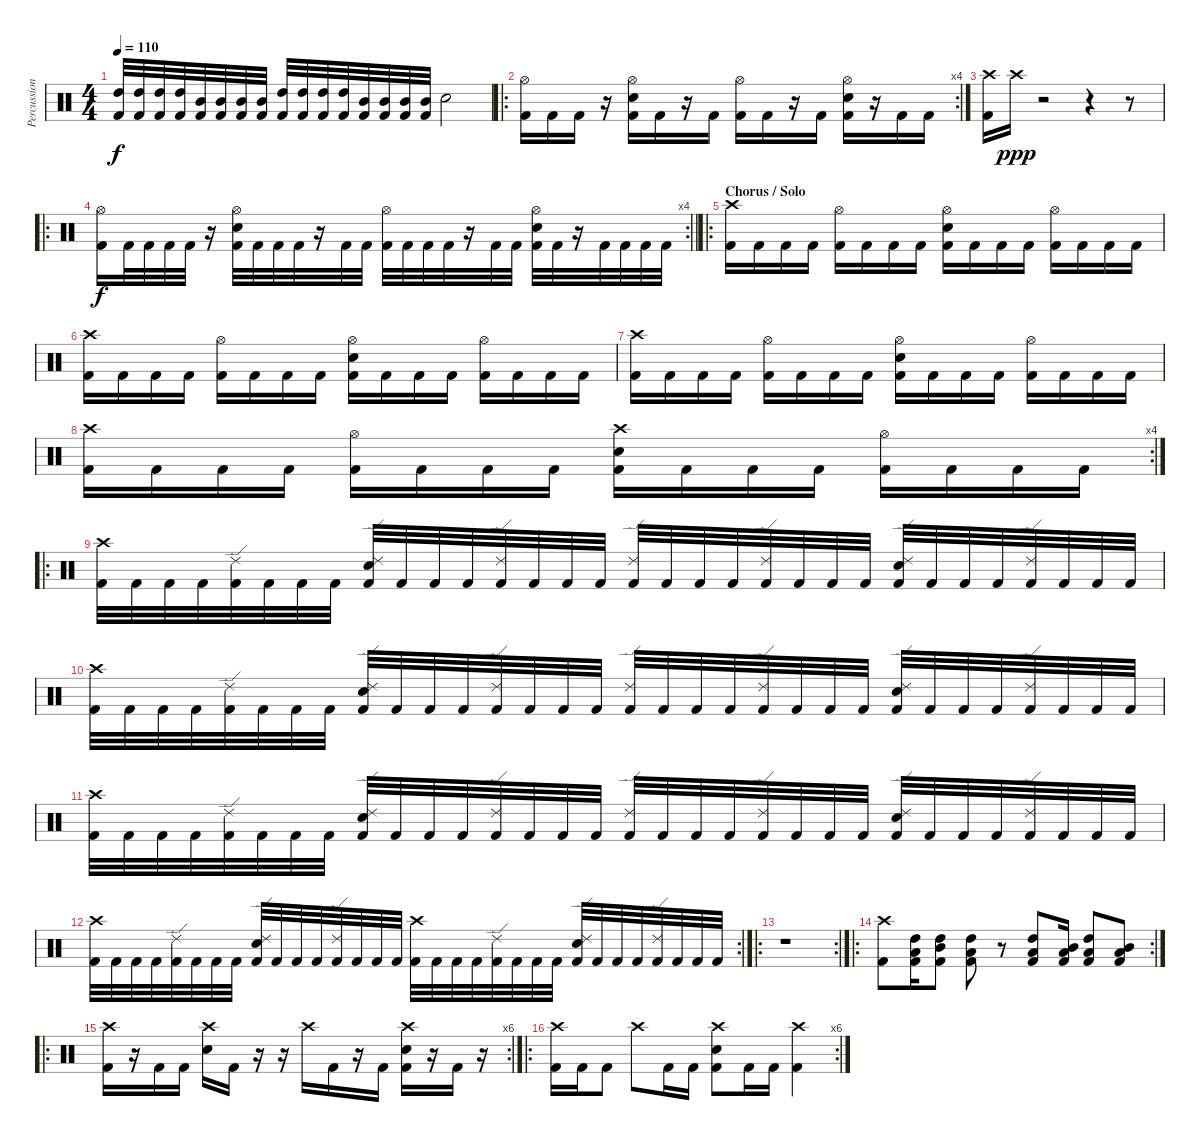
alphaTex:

\track ("Percussion" "Percussion") {instrument percussion}
\staff {score}
\articulation defaults
\ts (4 4)
\tempo 110
\clef neutral
\ks c
("High Tom (hit)" "Kick (hit) 2").32{dy f} ("High Tom (hit)" "Kick (hit) 2").32 ("High Tom (hit)" "Kick (hit) 2").32 ("High Tom (hit)" "Kick (hit) 2").32 ("Mid Tom (hit)" "Kick (hit) 2").32 ("Mid Tom (hit)" "Kick (hit) 2").32 ("Mid Tom (hit)" "Kick (hit) 2").32 ("Mid Tom (hit)" "Kick (hit) 2").32 ("High Tom (hit)" "Kick (hit) 2").32 ("High Tom (hit)" "Kick (hit) 2").32 ("High Tom (hit)" "Kick (hit) 2").32 ("High Tom (hit)" "Kick (hit) 2").32 ("Mid Tom (hit)" "Kick (hit) 2").32 ("Mid Tom (hit)" "Kick (hit) 2").32 ("Mid Tom (hit)" "Kick (hit) 2").32 ("Mid Tom (hit)" "Kick (hit) 2").32 "Electric Snare (hit)".2 |
\ro
\rc 4
("Hi-Hat (open)" "Kick (hit) 2").16 "Kick (hit) 2".16 "Kick (hit) 2".16 r.16 ("Hi-Hat (open)" "Electric Snare (hit)" "Kick (hit) 2").16 "Kick (hit) 2".16 r.16 "Kick (hit) 2".16 ("Hi-Hat (open)" "Kick (hit) 2").16 "Kick (hit) 2".16 r.16 "Kick (hit) 2".16 ("Hi-Hat (open)" "Electric Snare (hit)" "Kick (hit) 2").16 r.16 "Kick (hit) 2".16 "Kick (hit) 2".16 |
("Crash high (hit)" "Kick (hit) 2").16 "Crash high (hit)".16{dy ppp} r.2 r.4 r.8 |
\ro
\rc 4
\barLineRight lightlight
("Hi-Hat (open)" "Kick (hit) 2").16{dy f} "Kick (hit) 2".32 "Kick (hit) 2".32 "Kick (hit) 2".32 "Kick (hit) 2".32 r.16 ("Hi-Hat (open)" "Electric Snare (hit)" "Kick (hit) 2").32 "Kick (hit) 2".32 "Kick (hit) 2".32 "Kick (hit) 2".32 r.16 "Kick (hit) 2".32 "Kick (hit) 2".32 ("Hi-Hat (open)" "Kick (hit) 2").32 "Kick (hit) 2".32 "Kick (hit) 2".32 "Kick (hit) 2".32 r.16 "Kick (hit) 2".32 "Kick (hit) 2".32 ("Hi-Hat (open)" "Electric Snare (hit)" "Kick (hit) 2").32 "Kick (hit) 2".32 r.16 "Kick (hit) 2".32 "Kick (hit) 2".32 "Kick (hit) 2".32 "Kick (hit) 2".32 |
\ro
\section ("" "Chorus / Solo")
("Crash high (hit)" "Kick (hit) 2").16 "Kick (hit) 2".16 "Kick (hit) 2".16 "Kick (hit) 2".16 ("Hi-Hat (open)" "Kick (hit) 2").16 "Kick (hit) 2".16 "Kick (hit) 2".16 "Kick (hit) 2".16 ("Hi-Hat (open)" "Electric Snare (hit)" "Kick (hit) 2").16 "Kick (hit) 2".16 "Kick (hit) 2".16 "Kick (hit) 2".16 ("Hi-Hat (open)" "Kick (hit) 2").16 "Kick (hit) 2".16 "Kick (hit) 2".16 "Kick (hit) 2".16 |
("Crash high (hit)" "Kick (hit) 2").16 "Kick (hit) 2".16 "Kick (hit) 2".16 "Kick (hit) 2".16 ("Hi-Hat (open)" "Kick (hit) 2").16 "Kick (hit) 2".16 "Kick (hit) 2".16 "Kick (hit) 2".16 ("Hi-Hat (open)" "Electric Snare (hit)" "Kick (hit) 2").16 "Kick (hit) 2".16 "Kick (hit) 2".16 "Kick (hit) 2".16 ("Hi-Hat (open)" "Kick (hit) 2").16 "Kick (hit) 2".16 "Kick (hit) 2".16 "Kick (hit) 2".16 |
("Crash high (hit)" "Kick (hit) 2").16 "Kick (hit) 2".16 "Kick (hit) 2".16 "Kick (hit) 2".16 ("Hi-Hat (open)" "Kick (hit) 2").16 "Kick (hit) 2".16 "Kick (hit) 2".16 "Kick (hit) 2".16 ("Hi-Hat (open)" "Electric Snare (hit)" "Kick (hit) 2").16 "Kick (hit) 2".16 "Kick (hit) 2".16 "Kick (hit) 2".16 ("Hi-Hat (open)" "Kick (hit) 2").16 "Kick (hit) 2".16 "Kick (hit) 2".16 "Kick (hit) 2".16 |
\rc 4
("Crash high (hit)" "Kick (hit) 2").16 "Kick (hit) 2".16 "Kick (hit) 2".16 "Kick (hit) 2".16 ("Hi-Hat (open)" "Kick (hit) 2").16 "Kick (hit) 2".16 "Kick (hit) 2".16 "Kick (hit) 2".16 ("Crash high (hit)" "Electric Snare (hit)" "Kick (hit) 2").16 "Kick (hit) 2".16 "Kick (hit) 2".16 "Kick (hit) 2".16 ("Hi-Hat (open)" "Kick (hit) 2").16 "Kick (hit) 2".16 "Kick (hit) 2".16 "Kick (hit) 2".16 |
\ro
("Crash high (hit)" "Kick (hit) 2").32 "Kick (hit) 2".32 "Kick (hit) 2".32 "Kick (hit) 2".32 ("Ride (edge) 2" "Kick (hit) 2").32 "Kick (hit) 2".32 "Kick (hit) 2".32 "Kick (hit) 2".32 ("Ride (edge) 2" "Electric Snare (hit)" "Kick (hit) 2").32 "Kick (hit) 2".32 "Kick (hit) 2".32 "Kick (hit) 2".32 ("Ride (edge) 2" "Kick (hit) 2").32 "Kick (hit) 2".32 "Kick (hit) 2".32 "Kick (hit) 2".32 ("Ride (edge) 2" "Kick (hit) 2").32 "Kick (hit) 2".32 "Kick (hit) 2".32 "Kick (hit) 2".32 ("Ride (edge) 2" "Kick (hit) 2").32 "Kick (hit) 2".32 "Kick (hit) 2".32 "Kick (hit) 2".32 ("Ride (edge) 2" "Electric Snare (hit)" "Kick (hit) 2").32 "Kick (hit) 2".32 "Kick (hit) 2".32 "Kick (hit) 2".32 ("Ride (edge) 2" "Kick (hit) 2").32 "Kick (hit) 2".32 "Kick (hit) 2".32 "Kick (hit) 2".32 |
("Crash high (hit)" "Kick (hit) 2").32 "Kick (hit) 2".32 "Kick (hit) 2".32 "Kick (hit) 2".32 ("Ride (edge) 2" "Kick (hit) 2").32 "Kick (hit) 2".32 "Kick (hit) 2".32 "Kick (hit) 2".32 ("Ride (edge) 2" "Electric Snare (hit)" "Kick (hit) 2").32 "Kick (hit) 2".32 "Kick (hit) 2".32 "Kick (hit) 2".32 ("Ride (edge) 2" "Kick (hit) 2").32 "Kick (hit) 2".32 "Kick (hit) 2".32 "Kick (hit) 2".32 ("Ride (edge) 2" "Kick (hit) 2").32 "Kick (hit) 2".32 "Kick (hit) 2".32 "Kick (hit) 2".32 ("Ride (edge) 2" "Kick (hit) 2").32 "Kick (hit) 2".32 "Kick (hit) 2".32 "Kick (hit) 2".32 ("Ride (edge) 2" "Electric Snare (hit)" "Kick (hit) 2").32 "Kick (hit) 2".32 "Kick (hit) 2".32 "Kick (hit) 2".32 ("Ride (edge) 2" "Kick (hit) 2").32 "Kick (hit) 2".32 "Kick (hit) 2".32 "Kick (hit) 2".32 |
("Crash high (hit)" "Kick (hit) 2").32 "Kick (hit) 2".32 "Kick (hit) 2".32 "Kick (hit) 2".32 ("Ride (edge) 2" "Kick (hit) 2").32 "Kick (hit) 2".32 "Kick (hit) 2".32 "Kick (hit) 2".32 ("Ride (edge) 2" "Electric Snare (hit)" "Kick (hit) 2").32 "Kick (hit) 2".32 "Kick (hit) 2".32 "Kick (hit) 2".32 ("Ride (edge) 2" "Kick (hit) 2").32 "Kick (hit) 2".32 "Kick (hit) 2".32 "Kick (hit) 2".32 ("Ride (edge) 2" "Kick (hit) 2").32 "Kick (hit) 2".32 "Kick (hit) 2".32 "Kick (hit) 2".32 ("Ride (edge) 2" "Kick (hit) 2").32 "Kick (hit) 2".32 "Kick (hit) 2".32 "Kick (hit) 2".32 ("Ride (edge) 2" "Electric Snare (hit)" "Kick (hit) 2").32 "Kick (hit) 2".32 "Kick (hit) 2".32 "Kick (hit) 2".32 ("Ride (edge) 2" "Kick (hit) 2").32 "Kick (hit) 2".32 "Kick (hit) 2".32 "Kick (hit) 2".32 |
\rc 2
("Crash high (hit)" "Kick (hit) 2").32 "Kick (hit) 2".32 "Kick (hit) 2".32 "Kick (hit) 2".32 ("Ride (edge) 2" "Kick (hit) 2").32 "Kick (hit) 2".32 "Kick (hit) 2".32 "Kick (hit) 2".32 ("Ride (edge) 2" "Electric Snare (hit)" "Kick (hit) 2").32 "Kick (hit) 2".32 "Kick (hit) 2".32 "Kick (hit) 2".32 ("Ride (edge) 2" "Kick (hit) 2").32 "Kick (hit) 2".32 "Kick (hit) 2".32 "Kick (hit) 2".32 ("Crash high (hit)" "Kick (hit) 2").32 "Kick (hit) 2".32 "Kick (hit) 2".32 "Kick (hit) 2".32 ("Ride (edge) 2" "Kick (hit) 2").32 "Kick (hit) 2".32 "Kick (hit) 2".32 "Kick (hit) 2".32 ("Ride (edge) 2" "Electric Snare (hit)" "Kick (hit) 2").32 "Kick (hit) 2".32 "Kick (hit) 2".32 "Kick (hit) 2".32 ("Ride (edge) 2" "Kick (hit) 2").32 "Kick (hit) 2".32 "Kick (hit) 2".32 "Kick (hit) 2".32 |
\ro
\rc 2
r.1 |
\ro
\rc 2
("Crash high (hit)" "Kick (hit) 2").8 ("High Tom (hit)" "Low Tom (hit)" "Kick (hit) 2").16 ("Mid Tom (hit)" "High Tom (hit)" "Kick (hit) 2").8 ("High Tom (hit)" "Low Tom (hit)" "Kick (hit) 2").8 r.8 ("High Tom (hit)" "Low Tom (hit)" "Kick (hit) 2").8 ("Low Tom (hit)" "Mid Tom (hit)" "Kick (hit) 2").16 ("Low Tom (hit)" "High Tom (hit)" "Kick (hit) 2").8 ("Low Tom (hit)" "Mid Tom (hit)" "Kick (hit) 2").8 |
\ro
\rc 6
("Crash high (hit)" "Kick (hit) 2").16 r.16 "Kick (hit) 2".16 "Kick (hit) 2".16 ("Crash high (hit)" "Electric Snare (hit)").16 "Kick (hit) 2".16 r.16 r.16 "Crash high (hit)".16 "Kick (hit) 2".16 r.16 "Kick (hit) 2".16 ("Crash high (hit)" "Electric Snare (hit)" "Kick (hit) 2").16 r.16 "Kick (hit) 2".16 r.16 |
\ro
\rc 6
("Crash high (hit)" "Kick (hit) 2").16 "Kick (hit) 2".16 "Kick (hit) 2".8 "Crash high (hit)".8 "Kick (hit) 2".16 "Kick (hit) 2".16 ("Crash high (hit)" "Electric Snare (hit)" "Kick (hit) 2").8 "Kick (hit) 2".16 "Kick (hit) 2".16 ("Crash high (hit)" "Kick (hit) 2").4
